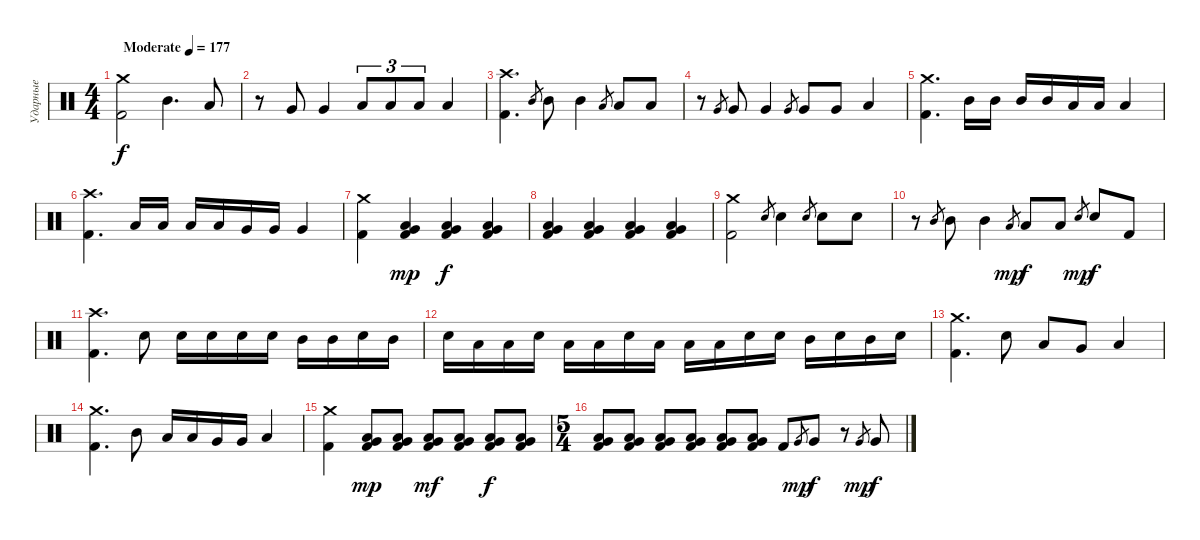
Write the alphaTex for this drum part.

\track ("Ударные" "Ударные") {instrument percussion}
\staff {score}
\articulation defaults
\ts (4 4)
\tempo (177 "Moderate")
\clef neutral
\ks c
("Crash medium (hit)" "Kick (hit) 2").2{dy f} "Mid Tom (hit)".4{d} "Low Tom (hit)".8 |
r.8 "Very Low Tom (hit)".8 "Very Low Tom (hit)".4 "Low Floor Tom (hit)".8{tu (3 2)} "Low Floor Tom (hit)".8{tu (3 2)} "Low Floor Tom (hit)".8{tu (3 2)} "Low Floor Tom (hit)".4 |
("Crash high (hit)" "Kick (hit) 2").4{d} "Mid Tom (hit)".8{gr} "Mid Tom (hit)".8 "Mid Tom (hit)".4 "Low Tom (hit)".8{gr} "Low Tom (hit)".8 "Low Tom (hit)".8 |
r.8 "Very Low Tom (hit)".8{gr} "Very Low Tom (hit)".8 "Very Low Tom (hit)".4 "Very Low Tom (hit)".8{gr} "Very Low Tom (hit)".8 "Very Low Tom (hit)".8 "Low Floor Tom (hit)".4 |
("Crash medium (hit)" "Kick (hit) 2").4{d} "Mid Tom (hit)".16 "Mid Tom (hit)".16 "Mid Tom (hit)".16 "Mid Tom (hit)".16 "Low Tom (hit)".16 "Low Tom (hit)".16 "Low Tom (hit)".4 |
("Crash high (hit)" "Kick (hit) 2").4{d} "Low Tom (hit)".16 "Low Tom (hit)".16 "Low Tom (hit)".16 "Low Tom (hit)".16 "Very Low Tom (hit)".16 "Very Low Tom (hit)".16 "Very Low Tom (hit)".4 |
("Crash medium (hit)" "Kick (hit) 2").4 ("Very Low Tom (hit)" "Low Tom (hit)" "Kick (hit) 2").4{dy mp} ("Very Low Tom (hit)" "Low Tom (hit)" "Kick (hit) 2").4{dy f} ("Very Low Tom (hit)" "Low Tom (hit)" "Kick (hit) 2").4 |
("Very Low Tom (hit)" "Low Tom (hit)" "Kick (hit) 2").4 ("Very Low Tom (hit)" "Low Tom (hit)" "Kick (hit) 2").4 ("Very Low Tom (hit)" "Low Tom (hit)" "Kick (hit) 2").4 ("Very Low Tom (hit)" "Low Tom (hit)" "Kick (hit) 2").4 |
("Crash medium (hit)" "Kick (hit) 2").2 "Snare (hit) 2".8{gr} "Snare (hit) 2".4 "Snare (hit) 2".8{gr} "Snare (hit) 2".8 "Snare (hit) 2".8 |
r.8 "Mid Tom (hit)".8{gr} "Mid Tom (hit)".8 "Mid Tom (hit)".4 "Low Tom (hit)".8{gr dy mp} "Low Tom (hit)".8{dy f} "Low Tom (hit)".8 "Snare (hit) 2".8{gr dy mp} "Snare (hit) 2".8{dy f} "Kick (hit) 2".8 |
("Crash high (hit)" "Kick (hit) 2").4{d} "Snare (hit) 2".8 "Snare (hit) 2".16 "Snare (hit) 2".16 "Snare (hit) 2".16 "Snare (hit) 2".16 "Mid Tom (hit)".16 "Mid Tom (hit)".16 "Snare (hit) 2".16 "Mid Tom (hit)".16 |
"Snare (hit) 2".16 "Low Tom (hit)".16 "Low Tom (hit)".16 "Snare (hit) 2".16 "Low Tom (hit)".16 "Low Tom (hit)".16 "Snare (hit) 2".16 "Low Tom (hit)".16 "Low Tom (hit)".16 "Low Tom (hit)".16 "Snare (hit) 2".16 "Snare (hit) 2".16 "Mid Tom (hit)".16 "Snare (hit) 2".16 "Mid Tom (hit)".16 "Snare (hit) 2".16 |
("Crash medium (hit)" "Kick (hit) 2").4{d} "Snare (hit) 2".8 "Low Tom (hit)".8 "Very Low Tom (hit)".8 "Low Floor Tom (hit)".4 |
("Crash medium (hit)" "Kick (hit) 2").4{d} "Mid Tom (hit)".8 "Low Tom (hit)".16 "Low Tom (hit)".16 "Very Low Tom (hit)".16 "Very Low Tom (hit)".16 "Low Floor Tom (hit)".4 |
("Crash medium (hit)" "Kick (hit) 2").4 ("Very Low Tom (hit)" "Low Tom (hit)" "Kick (hit) 2").8{dy mp} ("Very Low Tom (hit)" "Low Tom (hit)" "Kick (hit) 2").8 ("Very Low Tom (hit)" "Low Tom (hit)" "Kick (hit) 2").8{dy mf} ("Very Low Tom (hit)" "Low Tom (hit)" "Kick (hit) 2").8 ("Very Low Tom (hit)" "Low Tom (hit)" "Kick (hit) 2").8{dy f} ("Very Low Tom (hit)" "Low Tom (hit)" "Kick (hit) 2").8 |
\ts (5 4)
("Very Low Tom (hit)" "Low Tom (hit)" "Kick (hit) 2").8 ("Very Low Tom (hit)" "Low Tom (hit)" "Kick (hit) 2").8 ("Very Low Tom (hit)" "Low Tom (hit)" "Kick (hit) 2").8 ("Very Low Tom (hit)" "Low Tom (hit)" "Kick (hit) 2").8 ("Very Low Tom (hit)" "Low Tom (hit)" "Kick (hit) 2").8 ("Very Low Tom (hit)" "Low Tom (hit)" "Kick (hit) 2").8 "Kick (hit) 2".8 "Very Low Tom (hit)".8{gr dy mp} "Very Low Tom (hit)".8{dy f} r.8 "Very Low Tom (hit)".8{gr dy mp} "Very Low Tom (hit)".8{dy f}
